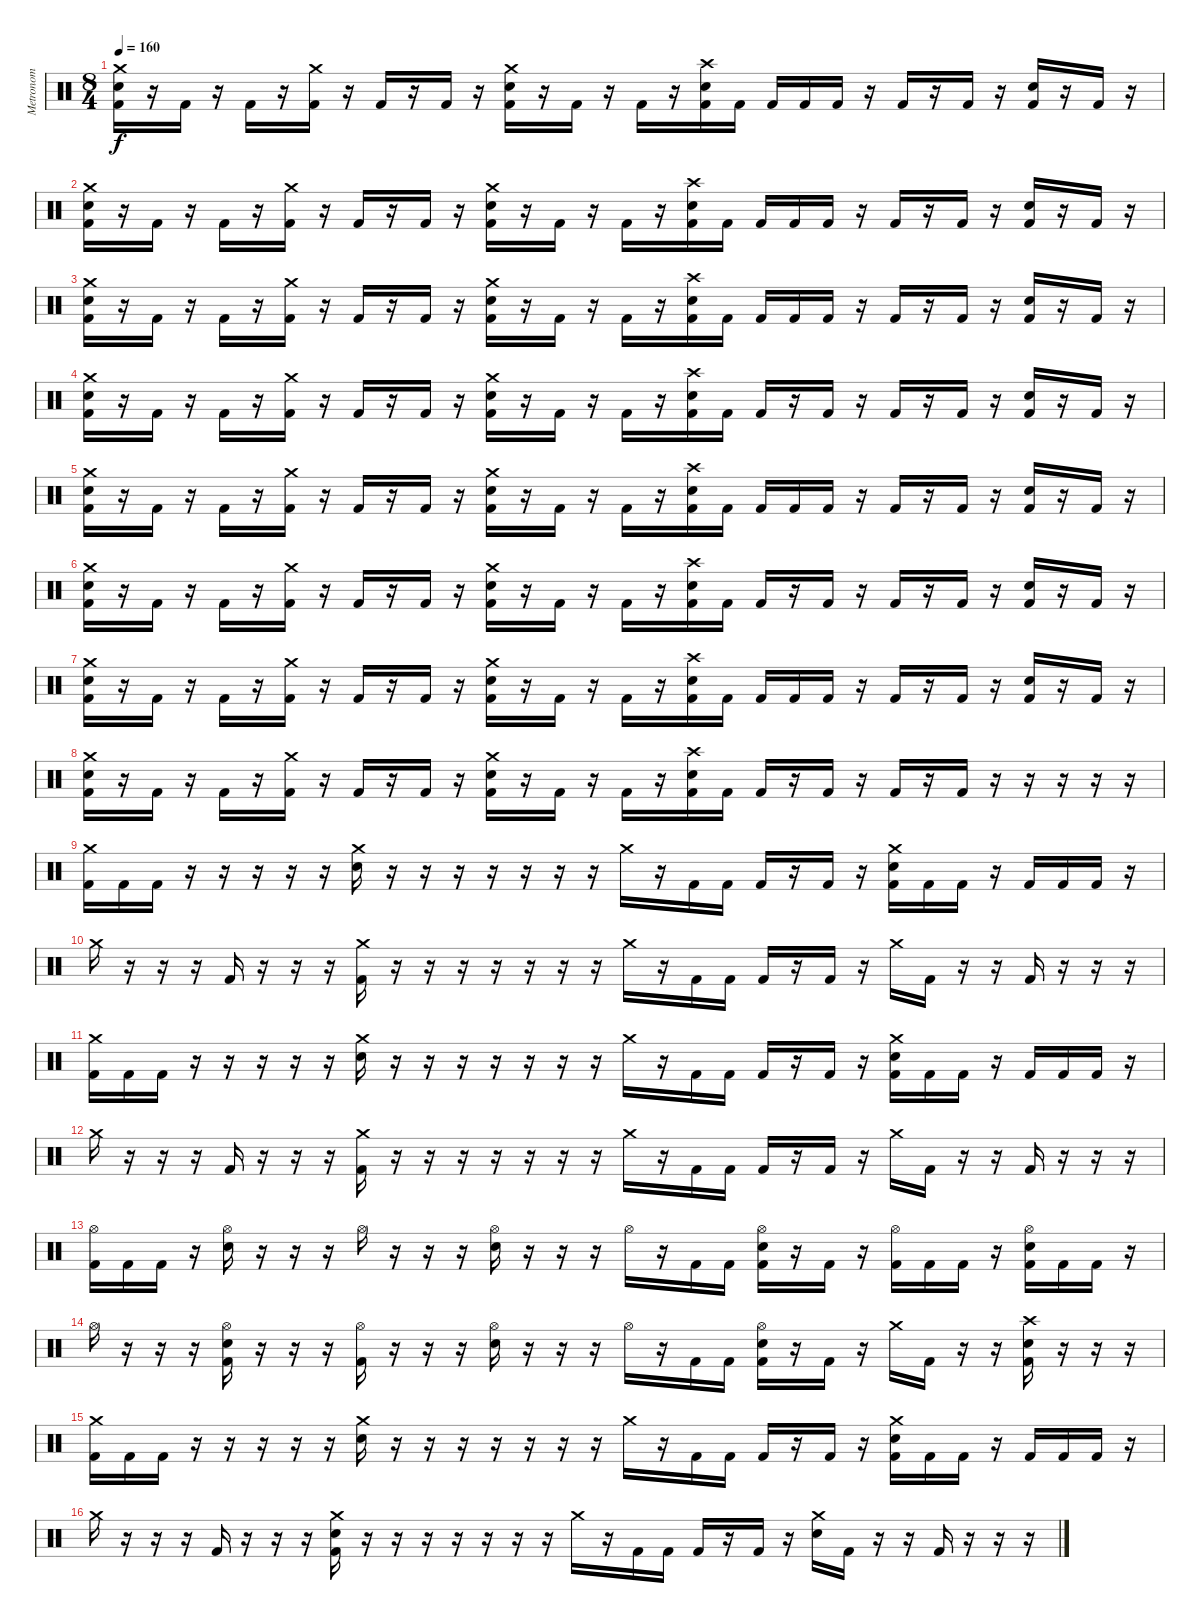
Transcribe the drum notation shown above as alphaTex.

\track ("Metronom" "Metronom") {instrument percussion}
\staff
\articulation defaults
\ts (8 4)
\tempo 160
\clef neutral
\ks c
("Crash medium (hit)" "Electric Snare (hit)" "Kick (hit) 2").16{dy f} r.16 "Kick (hit) 2".16 r.16 "Kick (hit) 2".16 r.16 ("Crash medium (hit)" "Kick (hit) 2").16 r.16 "Kick (hit) 2".16 r.16 "Kick (hit) 2".16 r.16 ("Crash medium (hit)" "Electric Snare (hit)" "Kick (hit) 2").16 r.16 "Kick (hit) 2".16 r.16 "Kick (hit) 2".16 r.16 ("Crash high (hit)" "Electric Snare (hit)" "Kick (hit) 2").16 "Kick (hit) 2".16 "Kick (hit) 2".16 "Kick (hit) 2".16 "Kick (hit) 2".16 r.16 "Kick (hit) 2".16 r.16 "Kick (hit) 2".16 r.16 ("Electric Snare (hit)" "Kick (hit) 2").16 r.16 "Kick (hit) 2".16 r.16 |
("Crash medium (hit)" "Electric Snare (hit)" "Kick (hit) 2").16 r.16 "Kick (hit) 2".16 r.16 "Kick (hit) 2".16 r.16 ("Crash medium (hit)" "Kick (hit) 2").16 r.16 "Kick (hit) 2".16 r.16 "Kick (hit) 2".16 r.16 ("Crash medium (hit)" "Electric Snare (hit)" "Kick (hit) 2").16 r.16 "Kick (hit) 2".16 r.16 "Kick (hit) 2".16 r.16 ("Crash high (hit)" "Electric Snare (hit)" "Kick (hit) 2").16 "Kick (hit) 2".16 "Kick (hit) 2".16 "Kick (hit) 2".16 "Kick (hit) 2".16 r.16 "Kick (hit) 2".16 r.16 "Kick (hit) 2".16 r.16 ("Electric Snare (hit)" "Kick (hit) 2").16 r.16 "Kick (hit) 2".16 r.16 |
("Crash medium (hit)" "Electric Snare (hit)" "Kick (hit) 2").16 r.16 "Kick (hit) 2".16 r.16 "Kick (hit) 2".16 r.16 ("Crash medium (hit)" "Kick (hit) 2").16 r.16 "Kick (hit) 2".16 r.16 "Kick (hit) 2".16 r.16 ("Crash medium (hit)" "Electric Snare (hit)" "Kick (hit) 2").16 r.16 "Kick (hit) 2".16 r.16 "Kick (hit) 2".16 r.16 ("Crash high (hit)" "Electric Snare (hit)" "Kick (hit) 2").16 "Kick (hit) 2".16 "Kick (hit) 2".16 "Kick (hit) 2".16 "Kick (hit) 2".16 r.16 "Kick (hit) 2".16 r.16 "Kick (hit) 2".16 r.16 ("Electric Snare (hit)" "Kick (hit) 2").16 r.16 "Kick (hit) 2".16 r.16 |
("Crash medium (hit)" "Electric Snare (hit)" "Kick (hit) 2").16 r.16 "Kick (hit) 2".16 r.16 "Kick (hit) 2".16 r.16 ("Crash medium (hit)" "Kick (hit) 2").16 r.16 "Kick (hit) 2".16 r.16 "Kick (hit) 2".16 r.16 ("Crash medium (hit)" "Electric Snare (hit)" "Kick (hit) 2").16 r.16 "Kick (hit) 2".16 r.16 "Kick (hit) 2".16 r.16 ("Crash high (hit)" "Electric Snare (hit)" "Kick (hit) 2").16 "Kick (hit) 2".16 "Kick (hit) 2".16 r.16 "Kick (hit) 2".16 r.16 "Kick (hit) 2".16 r.16 "Kick (hit) 2".16 r.16 ("Electric Snare (hit)" "Kick (hit) 2").16 r.16 "Kick (hit) 2".16 r.16 |
("Crash medium (hit)" "Electric Snare (hit)" "Kick (hit) 2").16 r.16 "Kick (hit) 2".16 r.16 "Kick (hit) 2".16 r.16 ("Crash medium (hit)" "Kick (hit) 2").16 r.16 "Kick (hit) 2".16 r.16 "Kick (hit) 2".16 r.16 ("Crash medium (hit)" "Electric Snare (hit)" "Kick (hit) 2").16 r.16 "Kick (hit) 2".16 r.16 "Kick (hit) 2".16 r.16 ("Crash high (hit)" "Electric Snare (hit)" "Kick (hit) 2").16 "Kick (hit) 2".16 "Kick (hit) 2".16 "Kick (hit) 2".16 "Kick (hit) 2".16 r.16 "Kick (hit) 2".16 r.16 "Kick (hit) 2".16 r.16 ("Electric Snare (hit)" "Kick (hit) 2").16 r.16 "Kick (hit) 2".16 r.16 |
("Crash medium (hit)" "Electric Snare (hit)" "Kick (hit) 2").16 r.16 "Kick (hit) 2".16 r.16 "Kick (hit) 2".16 r.16 ("Crash medium (hit)" "Kick (hit) 2").16 r.16 "Kick (hit) 2".16 r.16 "Kick (hit) 2".16 r.16 ("Crash medium (hit)" "Electric Snare (hit)" "Kick (hit) 2").16 r.16 "Kick (hit) 2".16 r.16 "Kick (hit) 2".16 r.16 ("Crash high (hit)" "Electric Snare (hit)" "Kick (hit) 2").16 "Kick (hit) 2".16 "Kick (hit) 2".16 r.16 "Kick (hit) 2".16 r.16 "Kick (hit) 2".16 r.16 "Kick (hit) 2".16 r.16 ("Electric Snare (hit)" "Kick (hit) 2").16 r.16 "Kick (hit) 2".16 r.16 |
("Crash medium (hit)" "Electric Snare (hit)" "Kick (hit) 2").16 r.16 "Kick (hit) 2".16 r.16 "Kick (hit) 2".16 r.16 ("Crash medium (hit)" "Kick (hit) 2").16 r.16 "Kick (hit) 2".16 r.16 "Kick (hit) 2".16 r.16 ("Crash medium (hit)" "Electric Snare (hit)" "Kick (hit) 2").16 r.16 "Kick (hit) 2".16 r.16 "Kick (hit) 2".16 r.16 ("Crash high (hit)" "Electric Snare (hit)" "Kick (hit) 2").16 "Kick (hit) 2".16 "Kick (hit) 2".16 "Kick (hit) 2".16 "Kick (hit) 2".16 r.16 "Kick (hit) 2".16 r.16 "Kick (hit) 2".16 r.16 ("Electric Snare (hit)" "Kick (hit) 2").16 r.16 "Kick (hit) 2".16 r.16 |
("Crash medium (hit)" "Electric Snare (hit)" "Kick (hit) 2").16 r.16 "Kick (hit) 2".16 r.16 "Kick (hit) 2".16 r.16 ("Crash medium (hit)" "Kick (hit) 2").16 r.16 "Kick (hit) 2".16 r.16 "Kick (hit) 2".16 r.16 ("Crash medium (hit)" "Electric Snare (hit)" "Kick (hit) 2").16 r.16 "Kick (hit) 2".16 r.16 "Kick (hit) 2".16 r.16 ("Crash high (hit)" "Electric Snare (hit)" "Kick (hit) 2").16 "Kick (hit) 2".16 "Kick (hit) 2".16 r.16 "Kick (hit) 2".16 r.16 "Kick (hit) 2".16 r.16 "Kick (hit) 2".16 r.16 r.16 r.16 r.16 r.16 |
("Crash medium (hit)" "Kick (hit) 2").16 "Kick (hit) 2".16 "Kick (hit) 2".16 r.16 r.16 r.16 r.16 r.16 ("Crash medium (hit)" "Electric Snare (hit)").16 r.16 r.16 r.16 r.16 r.16 r.16 r.16 "Crash medium (hit)".16 r.16 "Kick (hit) 2".16 "Kick (hit) 2".16 "Kick (hit) 2".16 r.16 "Kick (hit) 2".16 r.16 ("Crash medium (hit)" "Electric Snare (hit)" "Kick (hit) 2").16 "Kick (hit) 2".16 "Kick (hit) 2".16 r.16 "Kick (hit) 2".16 "Kick (hit) 2".16 "Kick (hit) 2".16 r.16 |
"Crash medium (hit)".16 r.16 r.16 r.16 "Kick (hit) 2".16 r.16 r.16 r.16 ("Crash medium (hit)" "Kick (hit) 2").16 r.16 r.16 r.16 r.16 r.16 r.16 r.16 "Crash medium (hit)".16 r.16 "Kick (hit) 2".16 "Kick (hit) 2".16 "Kick (hit) 2".16 r.16 "Kick (hit) 2".16 r.16 "Crash medium (hit)".16 "Kick (hit) 2".16 r.16 r.16 "Kick (hit) 2".16 r.16 r.16 r.16 |
("Crash medium (hit)" "Kick (hit) 2").16 "Kick (hit) 2".16 "Kick (hit) 2".16 r.16 r.16 r.16 r.16 r.16 ("Crash medium (hit)" "Electric Snare (hit)").16 r.16 r.16 r.16 r.16 r.16 r.16 r.16 "Crash medium (hit)".16 r.16 "Kick (hit) 2".16 "Kick (hit) 2".16 "Kick (hit) 2".16 r.16 "Kick (hit) 2".16 r.16 ("Crash medium (hit)" "Electric Snare (hit)" "Kick (hit) 2").16 "Kick (hit) 2".16 "Kick (hit) 2".16 r.16 "Kick (hit) 2".16 "Kick (hit) 2".16 "Kick (hit) 2".16 r.16 |
"Crash medium (hit)".16 r.16 r.16 r.16 "Kick (hit) 2".16 r.16 r.16 r.16 ("Crash medium (hit)" "Kick (hit) 2").16 r.16 r.16 r.16 r.16 r.16 r.16 r.16 "Crash medium (hit)".16 r.16 "Kick (hit) 2".16 "Kick (hit) 2".16 "Kick (hit) 2".16 r.16 "Kick (hit) 2".16 r.16 "Crash medium (hit)".16 "Kick (hit) 2".16 r.16 r.16 "Kick (hit) 2".16 r.16 r.16 r.16 |
("Hi-Hat (open)" "Kick (hit) 2").16 "Kick (hit) 2".16 "Kick (hit) 2".16 r.16 ("Hi-Hat (open)" "Electric Snare (hit)").16 r.16 r.16 r.16 "Hi-Hat (open)".16 r.16 r.16 r.16 ("Hi-Hat (open)" "Electric Snare (hit)").16 r.16 r.16 r.16 "Hi-Hat (open)".16 r.16 "Kick (hit) 2".16 "Kick (hit) 2".16 ("Hi-Hat (open)" "Electric Snare (hit)" "Kick (hit) 2").16 r.16 "Kick (hit) 2".16 r.16 ("Hi-Hat (open)" "Kick (hit) 2").16 "Kick (hit) 2".16 "Kick (hit) 2".16 r.16 ("Hi-Hat (open)" "Electric Snare (hit)" "Kick (hit) 2").16 "Kick (hit) 2".16 "Kick (hit) 2".16 r.16 |
"Hi-Hat (open)".16 r.16 r.16 r.16 ("Hi-Hat (open)" "Electric Snare (hit)" "Kick (hit) 2").16 r.16 r.16 r.16 ("Hi-Hat (open)" "Kick (hit) 2").16 r.16 r.16 r.16 ("Hi-Hat (open)" "Electric Snare (hit)").16 r.16 r.16 r.16 "Hi-Hat (open)".16 r.16 "Kick (hit) 2".16 "Kick (hit) 2".16 ("Hi-Hat (open)" "Electric Snare (hit)" "Kick (hit) 2").16 r.16 "Kick (hit) 2".16 r.16 "Crash medium (hit)".16 "Kick (hit) 2".16 r.16 r.16 ("Crash high (hit)" "Electric Snare (hit)" "Kick (hit) 2").16 r.16 r.16 r.16 |
("Crash medium (hit)" "Kick (hit) 2").16 "Kick (hit) 2".16 "Kick (hit) 2".16 r.16 r.16 r.16 r.16 r.16 ("Crash medium (hit)" "Electric Snare (hit)").16 r.16 r.16 r.16 r.16 r.16 r.16 r.16 "Crash medium (hit)".16 r.16 "Kick (hit) 2".16 "Kick (hit) 2".16 "Kick (hit) 2".16 r.16 "Kick (hit) 2".16 r.16 ("Crash medium (hit)" "Electric Snare (hit)" "Kick (hit) 2").16 "Kick (hit) 2".16 "Kick (hit) 2".16 r.16 "Kick (hit) 2".16 "Kick (hit) 2".16 "Kick (hit) 2".16 r.16 |
"Crash medium (hit)".16 r.16 r.16 r.16 "Kick (hit) 2".16 r.16 r.16 r.16 ("Crash medium (hit)" "Electric Snare (hit)" "Kick (hit) 2").16 r.16 r.16 r.16 r.16 r.16 r.16 r.16 "Crash medium (hit)".16 r.16 "Kick (hit) 2".16 "Kick (hit) 2".16 "Kick (hit) 2".16 r.16 "Kick (hit) 2".16 r.16 ("Crash medium (hit)" "Electric Snare (hit)").16 "Kick (hit) 2".16 r.16 r.16 "Kick (hit) 2".16 r.16 r.16 r.16
